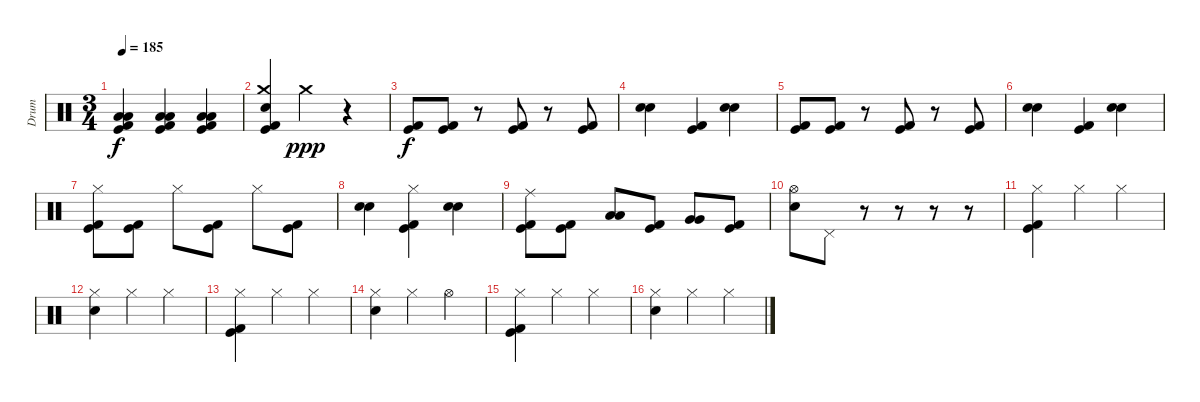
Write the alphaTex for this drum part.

\track ("Drum" "Drum") {instrument percussion}
\staff {score}
\articulation defaults
\ts (3 4)
\tempo 185
\clef neutral
\ks c
("Low Floor Tom (hit)" "Low Tom (hit)" "Kick (hit)" "Kick (hit) 2").4{dy f} ("Low Floor Tom (hit)" "Low Tom (hit)" "Kick (hit)" "Kick (hit) 2").4 ("Low Floor Tom (hit)" "Low Tom (hit)" "Kick (hit)" "Kick (hit) 2").4 |
("Crash medium (hit)" "Electric Snare (hit)" "Kick (hit)" "Kick (hit) 2").4 "Crash medium (hit)".4{dy ppp} r.4 |
("Kick (hit)" "Kick (hit) 2").8{dy f} ("Kick (hit)" "Kick (hit) 2").8 r.8 ("Kick (hit)" "Kick (hit) 2").8 r.8 ("Kick (hit)" "Kick (hit) 2").8 |
("Electric Snare (hit)" "Electric Snare (hit)").4{bu 240} ("Kick (hit)" "Kick (hit) 2").4 ("Electric Snare (hit)" "Electric Snare (hit)").4{bu 240} |
("Kick (hit)" "Kick (hit) 2").8 ("Kick (hit)" "Kick (hit) 2").8 r.8 ("Kick (hit)" "Kick (hit) 2").8 r.8 ("Kick (hit)" "Kick (hit) 2").8 |
("Electric Snare (hit)" "Electric Snare (hit)").4{bu 240} ("Kick (hit)" "Kick (hit) 2").4 ("Electric Snare (hit)" "Electric Snare (hit)").4{bu 240} |
("Hi-Hat (closed)" "Kick (hit)" "Kick (hit) 2").8 ("Kick (hit)" "Kick (hit) 2").8 "Hi-Hat (closed)".8 ("Kick (hit)" "Kick (hit) 2").8 "Hi-Hat (closed)".8 ("Kick (hit)" "Kick (hit) 2").8 |
("Electric Snare (hit)" "Electric Snare (hit)").4{bu 240} ("Hi-Hat (closed)" "Kick (hit)" "Kick (hit) 2").4 ("Electric Snare (hit)" "Electric Snare (hit)").4{bu 240} |
("Ride (middle)" "Kick (hit)" "Kick (hit) 2").8 ("Kick (hit)" "Kick (hit) 2").8 ("Low Tom (hit)" "Low Tom (hit)").8 ("Kick (hit)" "Kick (hit) 2").8 ("Very Low Tom (hit)" "Very Low Tom (hit)").8 ("Kick (hit)" "Kick (hit) 2").8 |
("Hi-Hat (open)" "Electric Snare (hit)").8 "Pedal Hi-Hat (hit)".8 r.8 r.8 r.8 r.8 |
("Hi-Hat (closed)" "Kick (hit)" "Kick (hit) 2").4 "Hi-Hat (closed)".4 "Hi-Hat (closed)".4 |
("Hi-Hat (closed)" "Electric Snare (hit)").4 "Hi-Hat (closed)".4 "Hi-Hat (closed)".4 |
("Hi-Hat (closed)" "Kick (hit)" "Kick (hit) 2").4 "Hi-Hat (closed)".4 "Hi-Hat (closed)".4 |
("Hi-Hat (closed)" "Electric Snare (hit)").4 "Hi-Hat (closed)".4 "Hi-Hat (open)".4 |
("Hi-Hat (closed)" "Kick (hit)" "Kick (hit) 2").4 "Hi-Hat (closed)".4 "Hi-Hat (closed)".4 |
("Hi-Hat (closed)" "Electric Snare (hit)").4 "Hi-Hat (closed)".4 "Hi-Hat (closed)".4
